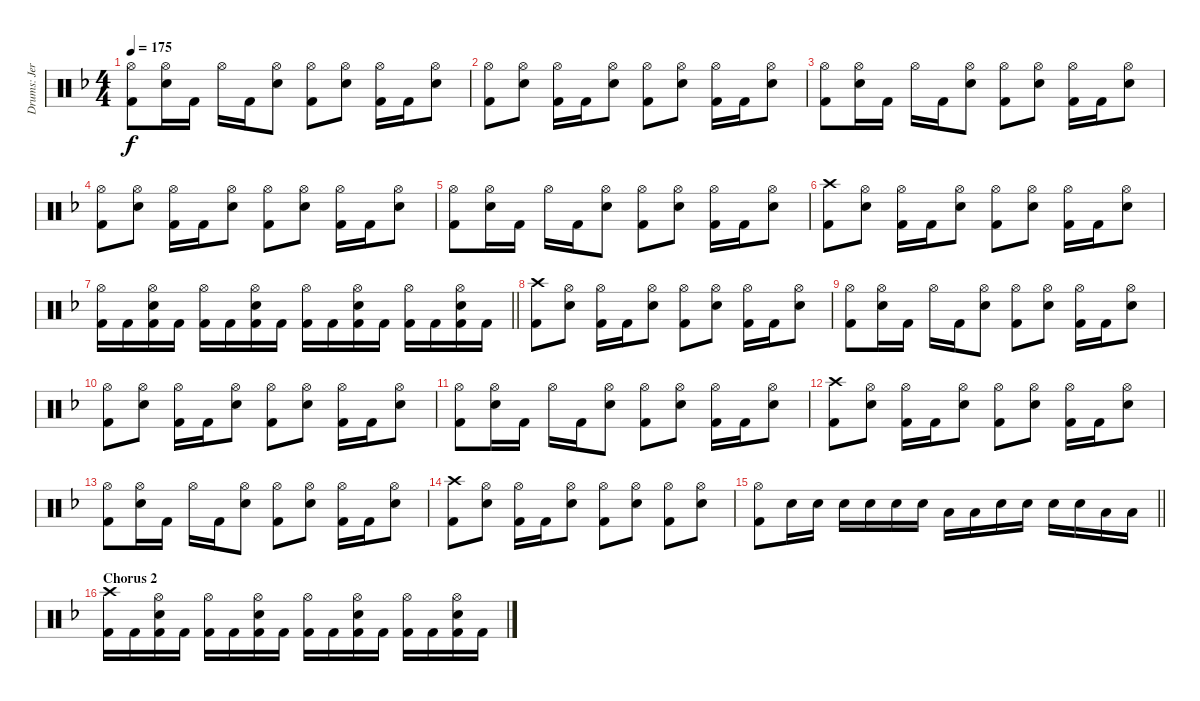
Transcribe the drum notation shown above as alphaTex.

\track ("Drums: Jere Luokkamäki" "Drums: Jer") {instrument percussion}
\staff {score}
\articulation defaults
\ts (4 4)
\tempo 175
\clef neutral
\ks dminor
("Hi-Hat (open)" "Kick (hit) 2").8{dy f} ("Hi-Hat (open)" "Electric Snare (hit)").16 "Kick (hit) 2".16 "Hi-Hat (open)".16 "Kick (hit) 2".16 ("Hi-Hat (open)" "Electric Snare (hit)").8 ("Hi-Hat (open)" "Kick (hit) 2").8 ("Hi-Hat (open)" "Electric Snare (hit)").8 ("Hi-Hat (open)" "Kick (hit) 2").16 "Kick (hit) 2".16 ("Hi-Hat (open)" "Electric Snare (hit)").8 |
("Hi-Hat (open)" "Kick (hit) 2").8 ("Hi-Hat (open)" "Electric Snare (hit)").8 ("Hi-Hat (open)" "Kick (hit) 2").16 "Kick (hit) 2".16 ("Hi-Hat (open)" "Electric Snare (hit)").8 ("Hi-Hat (open)" "Kick (hit) 2").8 ("Hi-Hat (open)" "Electric Snare (hit)").8 ("Hi-Hat (open)" "Kick (hit) 2").16 "Kick (hit) 2".16 ("Hi-Hat (open)" "Electric Snare (hit)").8 |
("Hi-Hat (open)" "Kick (hit) 2").8 ("Hi-Hat (open)" "Electric Snare (hit)").16 "Kick (hit) 2".16 "Hi-Hat (open)".16 "Kick (hit) 2".16 ("Hi-Hat (open)" "Electric Snare (hit)").8 ("Hi-Hat (open)" "Kick (hit) 2").8 ("Hi-Hat (open)" "Electric Snare (hit)").8 ("Hi-Hat (open)" "Kick (hit) 2").16 "Kick (hit) 2".16 ("Hi-Hat (open)" "Electric Snare (hit)").8 |
("Hi-Hat (open)" "Kick (hit) 2").8 ("Hi-Hat (open)" "Electric Snare (hit)").8 ("Hi-Hat (open)" "Kick (hit) 2").16 "Kick (hit) 2".16 ("Hi-Hat (open)" "Electric Snare (hit)").8 ("Hi-Hat (open)" "Kick (hit) 2").8 ("Hi-Hat (open)" "Electric Snare (hit)").8 ("Hi-Hat (open)" "Kick (hit) 2").16 "Kick (hit) 2".16 ("Hi-Hat (open)" "Electric Snare (hit)").8 |
("Hi-Hat (open)" "Kick (hit) 2").8 ("Hi-Hat (open)" "Electric Snare (hit)").16 "Kick (hit) 2".16 "Hi-Hat (open)".16 "Kick (hit) 2".16 ("Hi-Hat (open)" "Electric Snare (hit)").8 ("Hi-Hat (open)" "Kick (hit) 2").8 ("Hi-Hat (open)" "Electric Snare (hit)").8 ("Hi-Hat (open)" "Kick (hit) 2").16 "Kick (hit) 2".16 ("Hi-Hat (open)" "Electric Snare (hit)").8 |
("Crash high (hit)" "Kick (hit) 2").8 ("Hi-Hat (open)" "Electric Snare (hit)").8 ("Hi-Hat (open)" "Kick (hit) 2").16 "Kick (hit) 2".16 ("Hi-Hat (open)" "Electric Snare (hit)").8 ("Hi-Hat (open)" "Kick (hit) 2").8 ("Hi-Hat (open)" "Electric Snare (hit)").8 ("Hi-Hat (open)" "Kick (hit) 2").16 "Kick (hit) 2".16 ("Hi-Hat (open)" "Electric Snare (hit)").8 |
\barLineRight lightlight
("Hi-Hat (open)" "Kick (hit) 2").16 "Kick (hit) 2".16 ("Hi-Hat (open)" "Electric Snare (hit)" "Kick (hit) 2").16 "Kick (hit) 2".16 ("Hi-Hat (open)" "Kick (hit) 2").16 "Kick (hit) 2".16 ("Hi-Hat (open)" "Electric Snare (hit)" "Kick (hit) 2").16 "Kick (hit) 2".16 ("Hi-Hat (open)" "Kick (hit) 2").16 "Kick (hit) 2".16 ("Hi-Hat (open)" "Electric Snare (hit)" "Kick (hit) 2").16 "Kick (hit) 2".16 ("Hi-Hat (open)" "Kick (hit) 2").16 "Kick (hit) 2".16 ("Hi-Hat (open)" "Electric Snare (hit)" "Kick (hit) 2").16 "Kick (hit) 2".16 |
("Crash high (hit)" "Kick (hit) 2").8 ("Hi-Hat (open)" "Electric Snare (hit)").8 ("Hi-Hat (open)" "Kick (hit) 2").16 "Kick (hit) 2".16 ("Hi-Hat (open)" "Electric Snare (hit)").8 ("Hi-Hat (open)" "Kick (hit) 2").8 ("Hi-Hat (open)" "Electric Snare (hit)").8 ("Hi-Hat (open)" "Kick (hit) 2").16 "Kick (hit) 2".16 ("Hi-Hat (open)" "Electric Snare (hit)").8 |
("Hi-Hat (open)" "Kick (hit) 2").8 ("Hi-Hat (open)" "Electric Snare (hit)").16 "Kick (hit) 2".16 "Hi-Hat (open)".16 "Kick (hit) 2".16 ("Hi-Hat (open)" "Electric Snare (hit)").8 ("Hi-Hat (open)" "Kick (hit) 2").8 ("Hi-Hat (open)" "Electric Snare (hit)").8 ("Hi-Hat (open)" "Kick (hit) 2").16 "Kick (hit) 2".16 ("Hi-Hat (open)" "Electric Snare (hit)").8 |
("Hi-Hat (open)" "Kick (hit) 2").8 ("Hi-Hat (open)" "Electric Snare (hit)").8 ("Hi-Hat (open)" "Kick (hit) 2").16 "Kick (hit) 2".16 ("Hi-Hat (open)" "Electric Snare (hit)").8 ("Hi-Hat (open)" "Kick (hit) 2").8 ("Hi-Hat (open)" "Electric Snare (hit)").8 ("Hi-Hat (open)" "Kick (hit) 2").16 "Kick (hit) 2".16 ("Hi-Hat (open)" "Electric Snare (hit)").8 |
("Hi-Hat (open)" "Kick (hit) 2").8 ("Hi-Hat (open)" "Electric Snare (hit)").16 "Kick (hit) 2".16 "Hi-Hat (open)".16 "Kick (hit) 2".16 ("Hi-Hat (open)" "Electric Snare (hit)").8 ("Hi-Hat (open)" "Kick (hit) 2").8 ("Hi-Hat (open)" "Electric Snare (hit)").8 ("Hi-Hat (open)" "Kick (hit) 2").16 "Kick (hit) 2".16 ("Hi-Hat (open)" "Electric Snare (hit)").8 |
("Crash high (hit)" "Kick (hit) 2").8 ("Hi-Hat (open)" "Electric Snare (hit)").8 ("Hi-Hat (open)" "Kick (hit) 2").16 "Kick (hit) 2".16 ("Hi-Hat (open)" "Electric Snare (hit)").8 ("Hi-Hat (open)" "Kick (hit) 2").8 ("Hi-Hat (open)" "Electric Snare (hit)").8 ("Hi-Hat (open)" "Kick (hit) 2").16 "Kick (hit) 2".16 ("Hi-Hat (open)" "Electric Snare (hit)").8 |
("Hi-Hat (open)" "Kick (hit) 2").8 ("Hi-Hat (open)" "Electric Snare (hit)").16 "Kick (hit) 2".16 "Hi-Hat (open)".16 "Kick (hit) 2".16 ("Hi-Hat (open)" "Electric Snare (hit)").8 ("Hi-Hat (open)" "Kick (hit) 2").8 ("Hi-Hat (open)" "Electric Snare (hit)").8 ("Hi-Hat (open)" "Kick (hit) 2").16 "Kick (hit) 2".16 ("Hi-Hat (open)" "Electric Snare (hit)").8 |
("Crash high (hit)" "Kick (hit) 2").8 ("Hi-Hat (open)" "Electric Snare (hit)").8 ("Hi-Hat (open)" "Kick (hit) 2").16 "Kick (hit) 2".16 ("Hi-Hat (open)" "Electric Snare (hit)").8 ("Hi-Hat (open)" "Kick (hit) 2").8 ("Hi-Hat (open)" "Electric Snare (hit)").8 ("Hi-Hat (open)" "Kick (hit) 2").8 ("Hi-Hat (open)" "Electric Snare (hit)").8 |
\barLineRight lightlight
("Hi-Hat (open)" "Kick (hit) 2").8 "Electric Snare (hit)".16 "Electric Snare (hit)".16 "Electric Snare (hit)".16 "Electric Snare (hit)".16 "Electric Snare (hit)".16 "Electric Snare (hit)".16 "Low Tom (hit)".16 "Low Tom (hit)".16 "Electric Snare (hit)".16 "Electric Snare (hit)".16 "Electric Snare (hit)".16 "Electric Snare (hit)".16 "Low Tom (hit)".16 "Low Tom (hit)".16 |
\section ("" "Chorus 2")
("Crash high (hit)" "Kick (hit) 2").16 "Kick (hit) 2".16 ("Hi-Hat (open)" "Electric Snare (hit)" "Kick (hit) 2").16 "Kick (hit) 2".16 ("Hi-Hat (open)" "Kick (hit) 2").16 "Kick (hit) 2".16 ("Hi-Hat (open)" "Electric Snare (hit)" "Kick (hit) 2").16 "Kick (hit) 2".16 ("Hi-Hat (open)" "Kick (hit) 2").16 "Kick (hit) 2".16 ("Hi-Hat (open)" "Electric Snare (hit)" "Kick (hit) 2").16 "Kick (hit) 2".16 ("Hi-Hat (open)" "Kick (hit) 2").16 "Kick (hit) 2".16 ("Hi-Hat (open)" "Electric Snare (hit)" "Kick (hit) 2").16 "Kick (hit) 2".16
